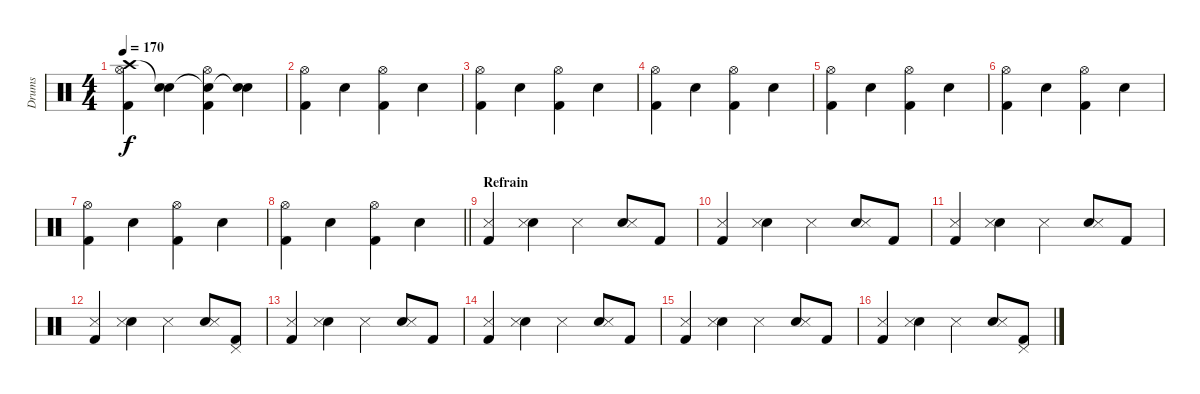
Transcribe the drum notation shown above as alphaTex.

\track ("Drums" "Drums") {instrument percussion}
\staff {score}
\articulation defaults
\ts (4 4)
\tempo 170
\clef neutral
\ks c
("Crash high (hit)" "Hi-Hat (open)" "Kick (hit) 2").4{dy f} ("Snare (hit)"{t} "Snare (hit) 2").4 ("Snare (hit)"{t} "Hi-Hat (open)" "Kick (hit) 2").4 ("Snare (hit)"{t} "Snare (hit) 2").4 |
("Hi-Hat (open)" "Kick (hit) 2").4 "Snare (hit) 2".4 ("Hi-Hat (open)" "Kick (hit) 2").4 "Snare (hit) 2".4 |
("Hi-Hat (open)" "Kick (hit) 2").4 "Snare (hit) 2".4 ("Hi-Hat (open)" "Kick (hit) 2").4 "Snare (hit) 2".4 |
("Hi-Hat (open)" "Kick (hit) 2").4 "Snare (hit) 2".4 ("Hi-Hat (open)" "Kick (hit) 2").4 "Snare (hit) 2".4 |
("Hi-Hat (open)" "Kick (hit) 2").4 "Snare (hit) 2".4 ("Hi-Hat (open)" "Kick (hit) 2").4 "Snare (hit) 2".4 |
("Hi-Hat (open)" "Kick (hit) 2").4 "Snare (hit) 2".4 ("Hi-Hat (open)" "Kick (hit) 2").4 "Snare (hit) 2".4 |
("Hi-Hat (open)" "Kick (hit) 2").4 "Snare (hit) 2".4 ("Hi-Hat (open)" "Kick (hit) 2").4 "Snare (hit) 2".4 |
\barLineRight lightlight
("Hi-Hat (open)" "Kick (hit) 2").4 "Snare (hit) 2".4 ("Hi-Hat (open)" "Kick (hit) 2").4 "Snare (hit) 2".4 |
\section ("" "Refrain")
("Snare (side stick) 3" "Kick (hit) 2").4 ("Snare (hit) 2" "Snare (side stick) 3").4 "Snare (side stick) 3".4 ("Snare (hit) 2" "Snare (side stick) 3").8 "Kick (hit) 2".8 |
("Snare (side stick) 3" "Kick (hit) 2").4 ("Snare (hit) 2" "Snare (side stick) 3").4 "Snare (side stick) 3".4 ("Snare (hit) 2" "Snare (side stick) 3").8 "Kick (hit) 2".8 |
("Snare (side stick) 3" "Kick (hit) 2").4 ("Snare (hit) 2" "Snare (side stick) 3").4 "Snare (side stick) 3".4 ("Snare (hit) 2" "Snare (side stick) 3").8 "Kick (hit) 2".8 |
("Snare (side stick) 3" "Kick (hit) 2").4 ("Snare (hit) 2" "Snare (side stick) 3").4 "Snare (side stick) 3".4 ("Snare (hit) 2" "Snare (side stick) 3").8 ("Pedal Hi-Hat (hit)" "Kick (hit) 2").8 |
("Snare (side stick) 3" "Kick (hit) 2").4 ("Snare (hit) 2" "Snare (side stick) 3").4 "Snare (side stick) 3".4 ("Snare (hit) 2" "Snare (side stick) 3").8 "Kick (hit) 2".8 |
("Snare (side stick) 3" "Kick (hit) 2").4 ("Snare (hit) 2" "Snare (side stick) 3").4 "Snare (side stick) 3".4 ("Snare (hit) 2" "Snare (side stick) 3").8 "Kick (hit) 2".8 |
("Snare (side stick) 3" "Kick (hit) 2").4 ("Snare (hit) 2" "Snare (side stick) 3").4 "Snare (side stick) 3".4 ("Snare (hit) 2" "Snare (side stick) 3").8 "Kick (hit) 2".8 |
("Snare (side stick) 3" "Kick (hit) 2").4 ("Snare (hit) 2" "Snare (side stick) 3").4 "Snare (side stick) 3".4 ("Snare (hit) 2" "Snare (side stick) 3").8 ("Pedal Hi-Hat (hit)" "Kick (hit) 2").8
